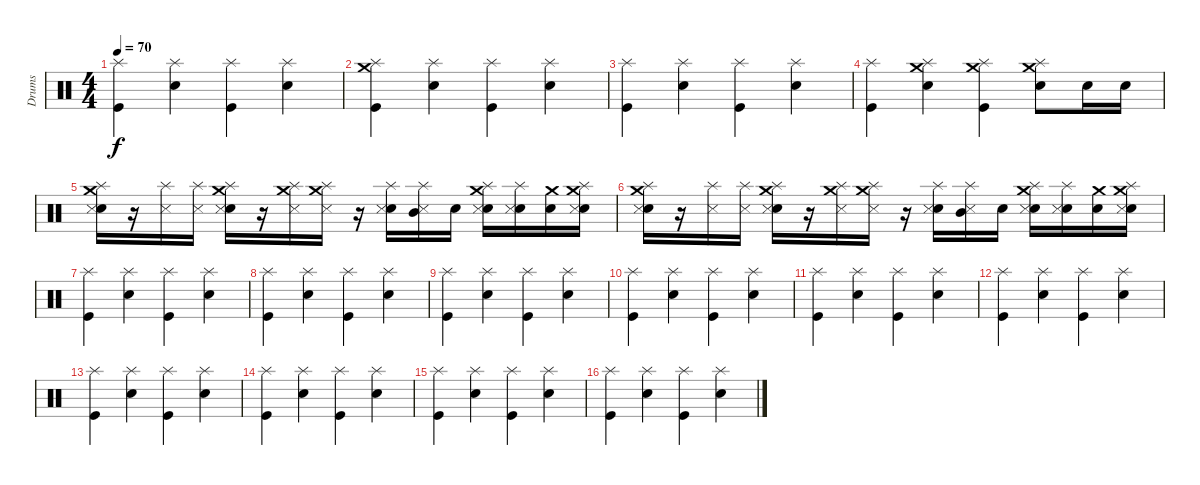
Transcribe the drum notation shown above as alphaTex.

\track ("Drums" "Drums") {instrument percussion}
\staff {score}
\articulation defaults
\ts (4 4)
\tempo 70
\clef neutral
\ks c
("Splash (hit)" "Kick (hit)").4{dy f} ("Splash (hit)" "Electric Snare (hit)").4 ("Splash (hit)" "Kick (hit)").4 ("Splash (hit)" "Electric Snare (hit)").4 |
("Splash (hit)" "Crash medium (hit)" "Kick (hit)").4 ("Splash (hit)" "Electric Snare (hit)").4 ("Splash (hit)" "Kick (hit)").4 ("Splash (hit)" "Electric Snare (hit)").4 |
("Splash (hit)" "Kick (hit)").4 ("Splash (hit)" "Electric Snare (hit)").4 ("Splash (hit)" "Kick (hit)").4 ("Splash (hit)" "Electric Snare (hit)").4 |
("Splash (hit)" "Kick (hit)").4 ("Splash (hit)" "Crash medium (hit)" "Electric Snare (hit)").4 ("Splash (hit)" "Crash medium (hit)" "Kick (hit)").4 ("Splash (hit)" "Crash medium (hit)" "Electric Snare (hit)").8 "Electric Snare (hit)".16 "Electric Snare (hit)".16 |
("Splash (hit)" "Snare (hit) 2" "Crash medium (hit)" "Snare (side stick) 3").16 r.16 ("Splash (hit)" "Snare (side stick) 3").16 ("Splash (hit)" "Snare (side stick) 3").16 ("Splash (hit)" "Snare (hit) 2" "Crash medium (hit)" "Snare (side stick) 3").16 r.16 ("Splash (hit)" "Crash medium (hit)" "Snare (side stick) 3").16 ("Splash (hit)" "Crash medium (hit)" "Snare (side stick) 3").16 r.16 ("Splash (hit)" "Snare (hit) 2" "Snare (side stick) 3").16 ("Splash (hit)" "Mid Tom (hit)" "Snare (side stick) 3").16 "Snare (hit) 2".16 ("Splash (hit)" "Snare (hit) 2" "Crash medium (hit)" "Snare (side stick) 3").16 ("Splash (hit)" "Snare (hit) 2" "Snare (side stick) 3").16 ("Snare (hit) 2" "Crash medium (hit)").16 ("Splash (hit)" "Snare (hit) 2" "Crash medium (hit)" "Snare (side stick) 3").16 |
("Splash (hit)" "Snare (hit) 2" "Crash medium (hit)" "Snare (side stick) 3").16 r.16 ("Splash (hit)" "Snare (side stick) 3").16 ("Splash (hit)" "Snare (side stick) 3").16 ("Splash (hit)" "Snare (hit) 2" "Crash medium (hit)" "Snare (side stick) 3").16 r.16 ("Splash (hit)" "Crash medium (hit)" "Snare (side stick) 3").16 ("Splash (hit)" "Crash medium (hit)" "Snare (side stick) 3").16 r.16 ("Splash (hit)" "Snare (hit) 2" "Snare (side stick) 3").16 ("Splash (hit)" "Mid Tom (hit)" "Snare (side stick) 3").16 "Snare (hit) 2".16 ("Splash (hit)" "Snare (hit) 2" "Crash medium (hit)" "Snare (side stick) 3").16 ("Splash (hit)" "Snare (hit) 2" "Snare (side stick) 3").16 ("Snare (hit) 2" "Crash medium (hit)").16 ("Splash (hit)" "Snare (hit) 2" "Crash medium (hit)" "Snare (side stick) 3").16 |
("Splash (hit)" "Kick (hit)").4 ("Splash (hit)" "Electric Snare (hit)").4 ("Splash (hit)" "Kick (hit)").4 ("Splash (hit)" "Electric Snare (hit)").4 |
("Splash (hit)" "Kick (hit)").4 ("Splash (hit)" "Electric Snare (hit)").4 ("Splash (hit)" "Kick (hit)").4 ("Splash (hit)" "Electric Snare (hit)").4 |
("Splash (hit)" "Kick (hit)").4 ("Splash (hit)" "Electric Snare (hit)").4 ("Splash (hit)" "Kick (hit)").4 ("Splash (hit)" "Electric Snare (hit)").4 |
("Splash (hit)" "Kick (hit)").4 ("Splash (hit)" "Electric Snare (hit)").4 ("Splash (hit)" "Kick (hit)").4 ("Splash (hit)" "Electric Snare (hit)").4 |
("Splash (hit)" "Kick (hit)").4 ("Splash (hit)" "Electric Snare (hit)").4 ("Splash (hit)" "Kick (hit)").4 ("Splash (hit)" "Electric Snare (hit)").4 |
("Splash (hit)" "Kick (hit)").4 ("Splash (hit)" "Electric Snare (hit)").4 ("Splash (hit)" "Kick (hit)").4 ("Splash (hit)" "Electric Snare (hit)").4 |
("Splash (hit)" "Kick (hit)").4 ("Splash (hit)" "Electric Snare (hit)").4 ("Splash (hit)" "Kick (hit)").4 ("Splash (hit)" "Electric Snare (hit)").4 |
("Splash (hit)" "Kick (hit)").4 ("Splash (hit)" "Electric Snare (hit)").4 ("Splash (hit)" "Kick (hit)").4 ("Splash (hit)" "Electric Snare (hit)").4 |
("Splash (hit)" "Kick (hit)").4 ("Splash (hit)" "Electric Snare (hit)").4 ("Splash (hit)" "Kick (hit)").4 ("Splash (hit)" "Electric Snare (hit)").4 |
("Splash (hit)" "Kick (hit)").4 ("Splash (hit)" "Electric Snare (hit)").4 ("Splash (hit)" "Kick (hit)").4 ("Splash (hit)" "Electric Snare (hit)").4
